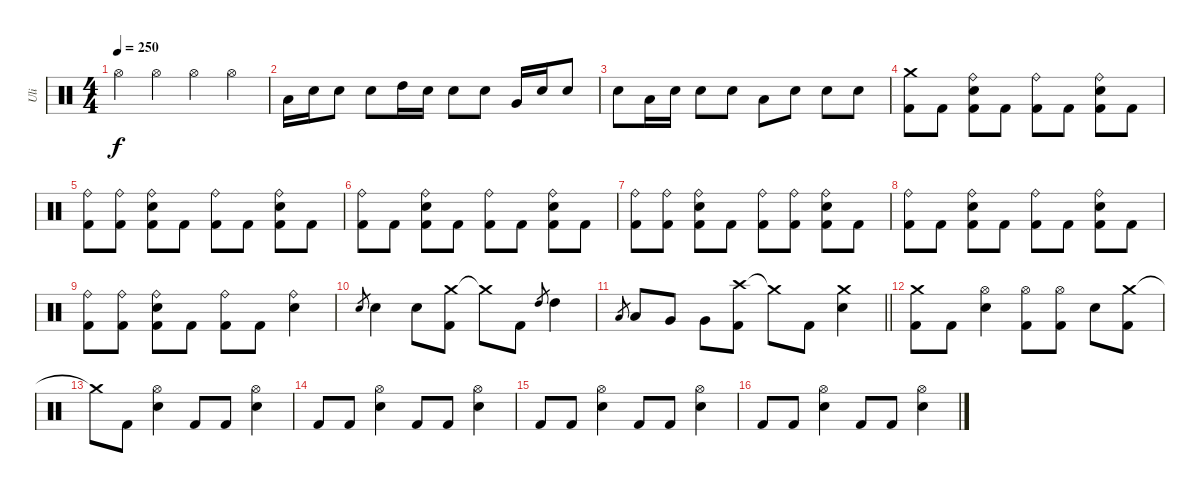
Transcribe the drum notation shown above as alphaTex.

\track ("Uli" "Uli") {instrument percussion}
\staff {score}
\articulation defaults
\ts (4 4)
\tempo 250
\clef neutral
\ks c "Hi-Hat (open)".4{dy f} "Hi-Hat (open)".4 "Hi-Hat (open)".4 "Hi-Hat (open)".4
|
"Low Tom (hit)".16 "Snare (hit) 2".16 "Snare (hit) 2".8 "Snare (hit) 2".8 "High Tom (hit)".16 "Snare (hit) 2".16 "Snare (hit) 2".8 "Snare (hit) 2".8 "Very Low Tom (hit)".16 "Snare (hit) 2".16 "Snare (hit) 2".8 |
"Snare (hit) 2".8 "Low Tom (hit)".16 "Snare (hit) 2".16 "Snare (hit) 2".8 "Snare (hit) 2".8 "Low Tom (hit)".8 "Snare (hit) 2".8 "Snare (hit) 2".8 "Snare (hit) 2".8 |
("Crash medium (hit)" "Kick (hit) 2").8 "Kick (hit) 2".8 ("Ride (bell)" "Snare (hit) 2" "Kick (hit) 2").8 "Kick (hit) 2".8 ("Ride (bell)" "Kick (hit) 2").8 "Kick (hit) 2".8 ("Ride (bell)" "Snare (hit) 2" "Kick (hit) 2").8 "Kick (hit) 2".8 |
("Ride (bell)" "Kick (hit) 2").8 ("Ride (bell)" "Kick (hit) 2").8 ("Ride (bell)" "Snare (hit) 2" "Kick (hit) 2").8 "Kick (hit) 2".8 ("Ride (bell)" "Kick (hit) 2").8 "Kick (hit) 2".8 ("Ride (bell)" "Snare (hit) 2" "Kick (hit) 2").8 "Kick (hit) 2".8 |
("Ride (bell)" "Kick (hit) 2").8 "Kick (hit) 2".8 ("Ride (bell)" "Snare (hit) 2" "Kick (hit) 2").8 "Kick (hit) 2".8 ("Ride (bell)" "Kick (hit) 2").8 "Kick (hit) 2".8 ("Ride (bell)" "Snare (hit) 2" "Kick (hit) 2").8 "Kick (hit) 2".8 |
("Ride (bell)" "Kick (hit) 2").8 ("Ride (bell)" "Kick (hit) 2").8 ("Ride (bell)" "Snare (hit) 2" "Kick (hit) 2").8 "Kick (hit) 2".8 ("Ride (bell)" "Kick (hit) 2").8 ("Ride (bell)" "Kick (hit) 2").8 ("Ride (bell)" "Snare (hit) 2" "Kick (hit) 2").8 "Kick (hit) 2".8 |
("Ride (bell)" "Kick (hit) 2").8 "Kick (hit) 2".8 ("Ride (bell)" "Snare (hit) 2" "Kick (hit) 2").8 "Kick (hit) 2".8 ("Ride (bell)" "Kick (hit) 2").8 "Kick (hit) 2".8 ("Ride (bell)" "Snare (hit) 2" "Kick (hit) 2").8 "Kick (hit) 2".8 |
("Ride (bell)" "Kick (hit) 2").8 ("Ride (bell)" "Kick (hit) 2").8 ("Ride (bell)" "Snare (hit) 2" "Kick (hit) 2").8 "Kick (hit) 2".8 ("Ride (bell)" "Kick (hit) 2").8 "Kick (hit) 2".8 ("Ride (bell)" "Snare (hit) 2").4 |
"Snare (hit) 2".8{gr} "Snare (hit) 2".4 "Snare (hit) 2".8 ("Crash medium (hit)" "Kick (hit) 2").8 "Crash medium (hit)"{t}.8 "Kick (hit) 2".8 "High Tom (hit)".8{gr} "High Tom (hit)".4 |
\barLineRight lightlight "Low Tom (hit)".8{gr} "Low Tom (hit)".8 "Very Low Tom (hit)".8 "Very Low Tom (hit)".8
("Crash high (hit)" "Kick (hit) 2").8 "Crash medium (hit)"{t}.8 "Kick (hit) 2".8 ("Crash medium (hit)" "Snare (hit) 2").4 |
("Crash medium (hit)" "Kick (hit) 2").8 "Kick (hit) 2".8 ("Hi-Hat (open)" "Snare (hit) 2").4 ("Hi-Hat (open)" "Kick (hit) 2").8 ("Hi-Hat (open)" "Kick (hit) 2").8 "Snare (hit) 2".8 ("Crash medium (hit)" "Kick (hit) 2").8 |
"Crash medium (hit)"{t}.8 "Kick (hit) 2".8 ("Hi-Hat (open)" "Snare (hit) 2").4 "Kick (hit) 2".8 "Kick (hit) 2".8 ("Hi-Hat (open)" "Snare (hit) 2").4 |
"Kick (hit) 2".8 "Kick (hit) 2".8 ("Hi-Hat (open)" "Snare (hit) 2").4 "Kick (hit) 2".8 "Kick (hit) 2".8 ("Hi-Hat (open)" "Snare (hit) 2").4 |
"Kick (hit) 2".8 "Kick (hit) 2".8 ("Hi-Hat (open)" "Snare (hit) 2").4 "Kick (hit) 2".8 "Kick (hit) 2".8 ("Hi-Hat (open)" "Snare (hit) 2").4 |
"Kick (hit) 2".8 "Kick (hit) 2".8 ("Hi-Hat (open)" "Snare (hit) 2").4 "Kick (hit) 2".8 "Kick (hit) 2".8 ("Hi-Hat (open)" "Snare (hit) 2").4
